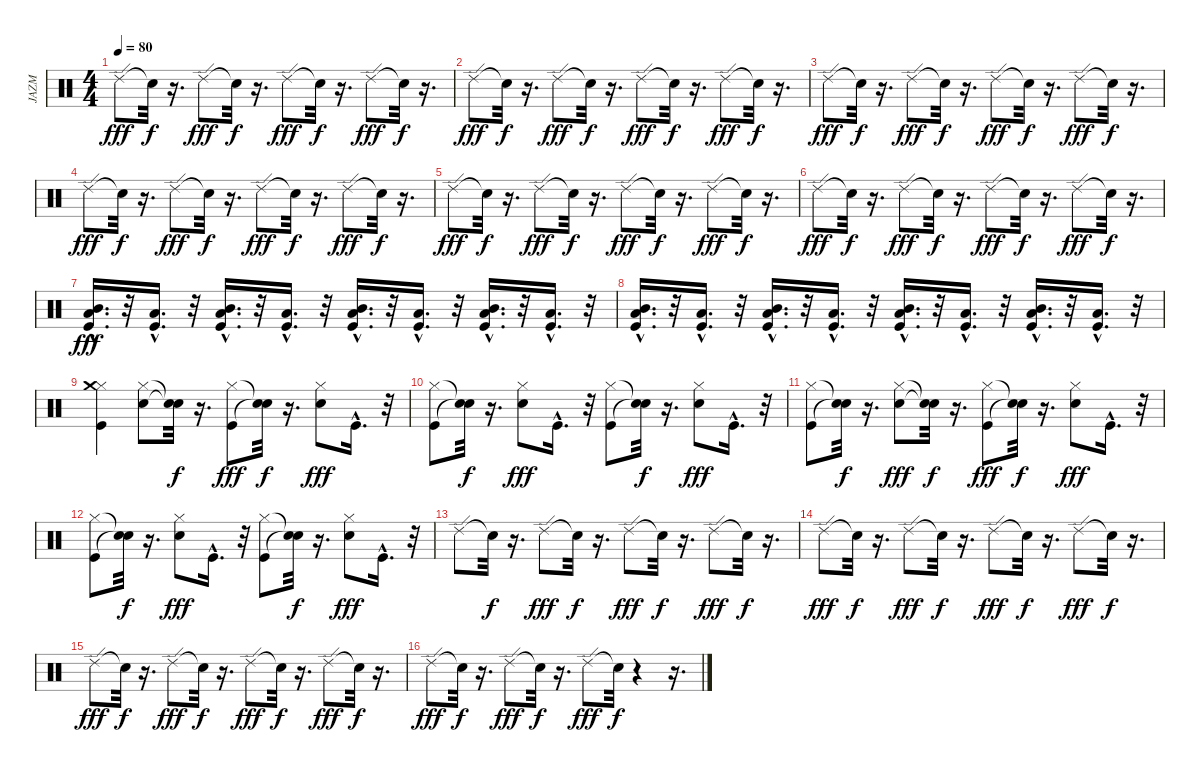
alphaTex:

\track ("JAZM" "JAZM") {instrument percussion}
\staff {score}
\articulation defaults
\ts (4 4)
\tempo 80
\clef neutral
\ks c "Ride (edge) 2".8{dy fff} "Snare (hit)"{t}.32{dy f}
r.16{d} "Ride (edge) 2".8{dy fff} "Snare (hit)"{t}.32{dy f} r.16{d} "Ride (edge) 2".8{dy fff} "Snare (hit)"{t}.32{dy f} r.16{d} "Ride (edge) 2".8{dy fff} "Snare (hit)"{t}.32{dy f} r.16{d} |
"Ride (edge) 2".8{dy fff} "Snare (hit)"{t}.32{dy f} r.16{d} "Ride (edge) 2".8{dy fff} "Snare (hit)"{t}.32{dy f} r.16{d} "Ride (edge) 2".8{dy fff} "Snare (hit)"{t}.32{dy f} r.16{d} "Ride (edge) 2".8{dy fff} "Snare (hit)"{t}.32{dy f} r.16{d} |
"Ride (edge) 2".8{dy fff} "Snare (hit)"{t}.32{dy f} r.16{d} "Ride (edge) 2".8{dy fff} "Snare (hit)"{t}.32{dy f} r.16{d} "Ride (edge) 2".8{dy fff} "Snare (hit)"{t}.32{dy f} r.16{d} "Ride (edge) 2".8{dy fff} "Snare (hit)"{t}.32{dy f} r.16{d} |
"Ride (edge) 2".8{dy fff} "Snare (hit)"{t}.32{dy f} r.16{d} "Ride (edge) 2".8{dy fff} "Snare (hit)"{t}.32{dy f} r.16{d} "Ride (edge) 2".8{dy fff} "Snare (hit)"{t}.32{dy f} r.16{d} "Ride (edge) 2".8{dy fff} "Snare (hit)"{t}.32{dy f} r.16{d} |
"Ride (edge) 2".8{dy fff} "Snare (hit)"{t}.32{dy f} r.16{d} "Ride (edge) 2".8{dy fff} "Snare (hit)"{t}.32{dy f} r.16{d} "Ride (edge) 2".8{dy fff} "Snare (hit)"{t}.32{dy f} r.16{d} "Ride (edge) 2".8{dy fff} "Snare (hit)"{t}.32{dy f} r.16{d} |
"Ride (edge) 2".8{dy fff} "Snare (hit)"{t}.32{dy f} r.16{d} "Ride (edge) 2".8{dy fff} "Snare (hit)"{t}.32{dy f} r.16{d} "Ride (edge) 2".8{dy fff} "Snare (hit)"{t}.32{dy f} r.16{d} "Ride (edge) 2".8{dy fff} "Snare (hit)"{t}.32{dy f} r.16{d} |
("Kick (hit)"{hac} "Mid Tom (hit)"{hac} "Low Tom (hit)"{hac}).16{d dy fff} r.32 ("Kick (hit)"{hac} "Low Tom (hit)"{hac}).16{d} r.32 ("Kick (hit)"{hac} "Mid Tom (hit)"{hac} "Low Tom (hit)"{hac}).16{d} r.32 ("Kick (hit)"{hac} "Low Tom (hit)"{hac}).16{d} r.32 ("Kick (hit)"{hac} "Mid Tom (hit)"{hac} "Low Tom (hit)"{hac}).16{d} r.32 ("Kick (hit)"{hac} "Low Tom (hit)"{hac}).16{d} r.32 ("Kick (hit)"{hac} "Mid Tom (hit)"{hac} "Low Tom (hit)"{hac}).16{d} r.32 ("Kick (hit)"{hac} "Low Tom (hit)"{hac}).16{d} r.32 |
("Kick (hit)"{hac} "Mid Tom (hit)"{hac} "Low Tom (hit)"{hac}).16{d} r.32 ("Kick (hit)"{hac} "Low Tom (hit)"{hac}).16{d} r.32 ("Kick (hit)"{hac} "Mid Tom (hit)"{hac} "Low Tom (hit)"{hac}).16{d} r.32 ("Kick (hit)"{hac} "Low Tom (hit)"{hac}).16{d} r.32 ("Kick (hit)"{hac} "Mid Tom (hit)"{hac} "Low Tom (hit)"{hac}).16{d} r.32 ("Kick (hit)"{hac} "Low Tom (hit)"{hac}).16{d} r.32 ("Kick (hit)"{hac} "Mid Tom (hit)"{hac} "Low Tom (hit)"{hac}).16{d} r.32 ("Kick (hit)"{hac} "Low Tom (hit)"{hac}).16{d} r.32 |
("Hi-Hat (closed)" "Kick (hit)" "Crash medium (hit)").4 ("Hi-Hat (closed)" "Snare (hit) 2").8 ("Snare (hit)"{t} "Snare (hit)"{t}).32{dy f} r.16{d} ("Hi-Hat (closed)" "Kick (hit)").8{dy fff} ("Snare (hit)"{t} "Snare (hit)"{t}).32{dy f} r.16{d} ("Hi-Hat (closed)" "Snare (hit) 2").8{dy fff} "Kick (hit)"{hac}.16{d} r.32 |
("Hi-Hat (closed)" "Kick (hit)").8 ("Snare (hit)"{t} "Snare (hit)"{t}).32{dy f} r.16{d} ("Hi-Hat (closed)" "Snare (hit) 2").8{dy fff} "Kick (hit)"{hac}.16{d} r.32 ("Hi-Hat (closed)" "Kick (hit)").8 ("Snare (hit)"{t} "Snare (hit)"{t}).32{dy f} r.16{d} ("Hi-Hat (closed)" "Snare (hit) 2").8{dy fff} "Kick (hit)"{hac}.16{d} r.32 |
("Hi-Hat (closed)" "Kick (hit)").8 ("Snare (hit)"{t} "Snare (hit)"{t}).32{dy f} r.16{d} ("Hi-Hat (closed)" "Snare (hit) 2").8{dy fff} ("Snare (hit)"{t} "Snare (hit)"{t}).32{dy f} r.16{d} ("Hi-Hat (closed)" "Kick (hit)").8{dy fff} ("Snare (hit)"{t} "Snare (hit)"{t}).32{dy f} r.16{d} ("Hi-Hat (closed)" "Snare (hit) 2").8{dy fff} "Kick (hit)"{hac}.16{d} r.32 |
("Hi-Hat (closed)" "Kick (hit)").8 ("Snare (hit)"{t} "Snare (hit)"{t}).32{dy f} r.16{d} ("Hi-Hat (closed)" "Snare (hit) 2").8{dy fff} "Kick (hit)"{hac}.16{d} r.32 ("Hi-Hat (closed)" "Kick (hit)").8 ("Snare (hit)"{t} "Snare (hit)"{t}).32{dy f} r.16{d} ("Hi-Hat (closed)" "Snare (hit) 2").8{dy fff} "Kick (hit)"{hac}.16{d} r.32 |
"Ride (edge) 2".8 "Snare (hit)"{t}.32{dy f} r.16{d} "Ride (edge) 2".8{dy fff} "Snare (hit)"{t}.32{dy f} r.16{d} "Ride (edge) 2".8{dy fff} "Snare (hit)"{t}.32{dy f} r.16{d} "Ride (edge) 2".8{dy fff} "Snare (hit)"{t}.32{dy f} r.16{d} |
"Ride (edge) 2".8{dy fff} "Snare (hit)"{t}.32{dy f} r.16{d} "Ride (edge) 2".8{dy fff} "Snare (hit)"{t}.32{dy f} r.16{d} "Ride (edge) 2".8{dy fff} "Snare (hit)"{t}.32{dy f} r.16{d} "Ride (edge) 2".8{dy fff} "Snare (hit)"{t}.32{dy f} r.16{d} |
"Ride (edge) 2".8{dy fff} "Snare (hit)"{t}.32{dy f} r.16{d} "Ride (edge) 2".8{dy fff} "Snare (hit)"{t}.32{dy f} r.16{d} "Ride (edge) 2".8{dy fff} "Snare (hit)"{t}.32{dy f} r.16{d} "Ride (edge) 2".8{dy fff} "Snare (hit)"{t}.32{dy f} r.16{d} |
"Ride (edge) 2".8{dy fff} "Snare (hit)"{t}.32{dy f} r.16{d} "Ride (edge) 2".8{dy fff} "Snare (hit)"{t}.32{dy f} r.16{d} "Ride (edge) 2".8{dy fff} "Snare (hit)"{t}.32{dy f} r.4 r.16{d}
